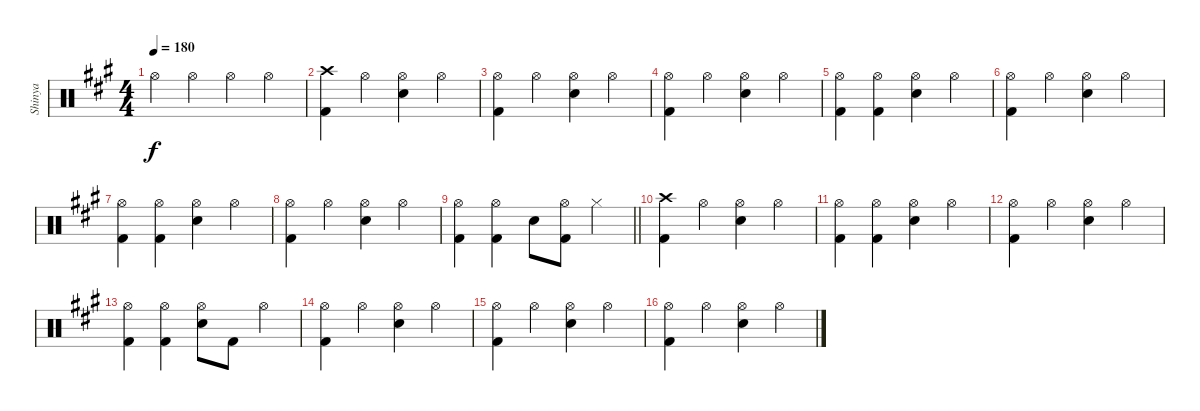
\track ("Shinya" "Shinya") {instrument percussion}
\staff {score}
\articulation defaults
\ts (4 4)
\tempo 180
\clef neutral
\ks a "Hi-Hat (open)".4{dy f} "Hi-Hat (open)".4 "Hi-Hat (open)".4 "Hi-Hat (open)".4
|
("Crash high (hit)" "Kick (hit) 2").4 "Hi-Hat (open)".4 ("Hi-Hat (open)" "Electric Snare (hit)").4 "Hi-Hat (open)".4 |
("Hi-Hat (open)" "Kick (hit) 2").4 "Hi-Hat (open)".4 ("Hi-Hat (open)" "Electric Snare (hit)").4 "Hi-Hat (open)".4 |
("Hi-Hat (open)" "Kick (hit) 2").4 "Hi-Hat (open)".4 ("Hi-Hat (open)" "Electric Snare (hit)").4 "Hi-Hat (open)".4 |
("Hi-Hat (open)" "Kick (hit) 2").4 ("Hi-Hat (open)" "Kick (hit) 2").4 ("Hi-Hat (open)" "Electric Snare (hit)").4 "Hi-Hat (open)".4 |
("Hi-Hat (open)" "Kick (hit) 2").4 "Hi-Hat (open)".4 ("Hi-Hat (open)" "Electric Snare (hit)").4 "Hi-Hat (open)".4 |
("Hi-Hat (open)" "Kick (hit) 2").4 ("Hi-Hat (open)" "Kick (hit) 2").4 ("Hi-Hat (open)" "Electric Snare (hit)").4 "Hi-Hat (open)".4 |
("Hi-Hat (open)" "Kick (hit) 2").4 "Hi-Hat (open)".4 ("Hi-Hat (open)" "Electric Snare (hit)").4 "Hi-Hat (open)".4 |
\barLineRight lightlight
("Hi-Hat (open)" "Kick (hit) 2").4 ("Hi-Hat (open)" "Kick (hit) 2").4 "Electric Snare (hit)".8 ("Hi-Hat (open)" "Kick (hit) 2").8 "Hi-Hat (closed)".4 |
("Crash high (hit)" "Kick (hit) 2").4 "Hi-Hat (open)".4 ("Hi-Hat (open)" "Electric Snare (hit)").4 "Hi-Hat (open)".4 |
("Hi-Hat (open)" "Kick (hit) 2").4 ("Hi-Hat (open)" "Kick (hit) 2").4 ("Hi-Hat (open)" "Electric Snare (hit)").4 "Hi-Hat (open)".4 |
("Hi-Hat (open)" "Kick (hit) 2").4 "Hi-Hat (open)".4 ("Hi-Hat (open)" "Electric Snare (hit)").4 "Hi-Hat (open)".4 |
("Hi-Hat (open)" "Kick (hit) 2").4 ("Hi-Hat (open)" "Kick (hit) 2").4 ("Hi-Hat (open)" "Electric Snare (hit)").8 "Kick (hit) 2".8 "Hi-Hat (open)".4 |
("Hi-Hat (open)" "Kick (hit) 2").4 "Hi-Hat (open)".4 ("Hi-Hat (open)" "Electric Snare (hit)").4 "Hi-Hat (open)".4 |
("Hi-Hat (open)" "Kick (hit) 2").4 "Hi-Hat (open)".4 ("Hi-Hat (open)" "Electric Snare (hit)").4 "Hi-Hat (open)".4 |
("Hi-Hat (open)" "Kick (hit) 2").4 "Hi-Hat (open)".4 ("Hi-Hat (open)" "Electric Snare (hit)").4 "Hi-Hat (open)".4
